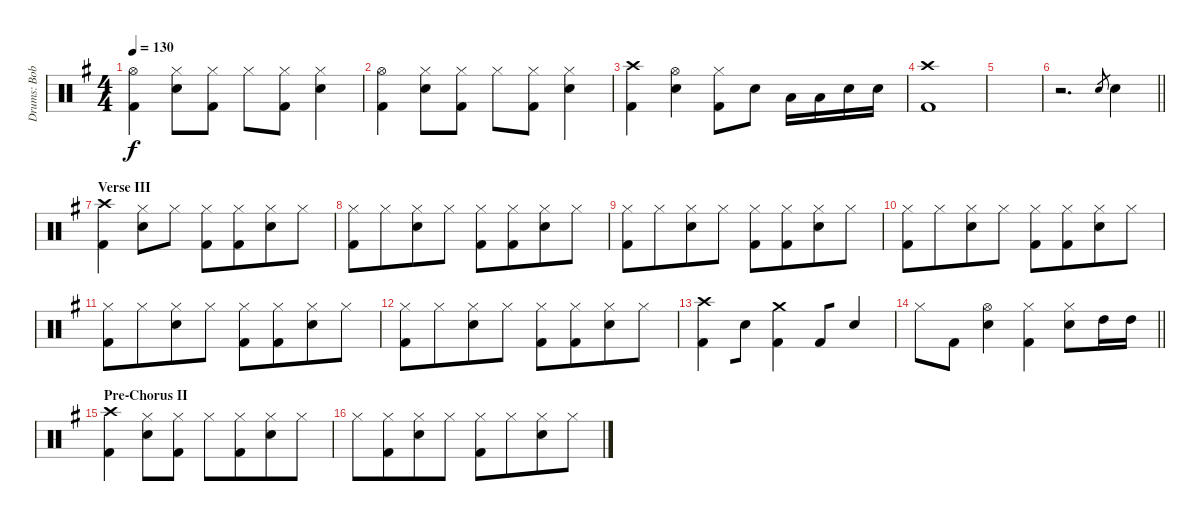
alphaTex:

\track ("Drums: Bobby" "Drums: Bob") {instrument percussion}
\staff {score}
\articulation defaults
\ts (4 4)
\tempo 130
\clef neutral
\ks g
("Hi-Hat (open)" "Kick (hit) 2").4{dy f beam merge} ("Hi-Hat (closed)" "Snare (hit) 2").8 ("Hi-Hat (closed)" "Kick (hit) 2").8 "Hi-Hat (closed)".8 ("Hi-Hat (closed)" "Kick (hit) 2").8{beam merge} ("Hi-Hat (closed)" "Snare (hit) 2").4 |
("Hi-Hat (open)" "Kick (hit) 2").4{beam merge} ("Hi-Hat (closed)" "Snare (hit) 2").8 ("Hi-Hat (closed)" "Kick (hit) 2").8 "Hi-Hat (closed)".8 ("Hi-Hat (closed)" "Kick (hit) 2").8{beam merge} ("Hi-Hat (closed)" "Snare (hit) 2").4 |
("Crash high (hit)" "Kick (hit) 2").4 ("Hi-Hat (open)" "Snare (hit) 2").4 ("Hi-Hat (closed)" "Kick (hit) 2").8 "Snare (hit) 2".8 "Low Tom (hit)".16 "Low Tom (hit)".16 "Snare (hit) 2".16 "Snare (hit) 2".16 |
("Crash high (hit)" "Kick (hit) 2").1 |
|
\barLineRight lightlight
r.2{d} "Electric Snare (hit)".8{gr} "Snare (hit) 2".4 |
\section ("" "Verse III")
("Crash high (hit)" "Kick (hit) 2").4 ("Hi-Hat (closed)" "Snare (hit) 2").8 "Hi-Hat (closed)".8 ("Hi-Hat (closed)" "Kick (hit) 2").8 ("Hi-Hat (closed)" "Kick (hit) 2").8{beam merge} ("Hi-Hat (closed)" "Snare (hit) 2").8 "Hi-Hat (closed)".8 |
("Hi-Hat (closed)" "Kick (hit) 2").8 "Hi-Hat (closed)".8{beam merge} ("Hi-Hat (closed)" "Snare (hit) 2").8 "Hi-Hat (closed)".8 ("Hi-Hat (closed)" "Kick (hit) 2").8 ("Hi-Hat (closed)" "Kick (hit) 2").8{beam merge} ("Hi-Hat (closed)" "Snare (hit) 2").8 "Hi-Hat (closed)".8 |
("Hi-Hat (closed)" "Kick (hit) 2").8 "Hi-Hat (closed)".8{beam merge} ("Hi-Hat (closed)" "Snare (hit) 2").8 "Hi-Hat (closed)".8 ("Hi-Hat (closed)" "Kick (hit) 2").8 ("Hi-Hat (closed)" "Kick (hit) 2").8{beam merge} ("Hi-Hat (closed)" "Snare (hit) 2").8 "Hi-Hat (closed)".8 |
("Hi-Hat (closed)" "Kick (hit) 2").8 "Hi-Hat (closed)".8{beam merge} ("Hi-Hat (closed)" "Snare (hit) 2").8 "Hi-Hat (closed)".8 ("Hi-Hat (closed)" "Kick (hit) 2").8 ("Hi-Hat (closed)" "Kick (hit) 2").8{beam merge} ("Hi-Hat (closed)" "Snare (hit) 2").8 "Hi-Hat (closed)".8 |
("Hi-Hat (closed)" "Kick (hit) 2").8 "Hi-Hat (closed)".8{beam merge} ("Hi-Hat (closed)" "Snare (hit) 2").8 "Hi-Hat (closed)".8 ("Hi-Hat (closed)" "Kick (hit) 2").8 ("Hi-Hat (closed)" "Kick (hit) 2").8{beam merge} ("Hi-Hat (closed)" "Snare (hit) 2").8 "Hi-Hat (closed)".8 |
("Hi-Hat (closed)" "Kick (hit) 2").8 "Hi-Hat (closed)".8{beam merge} ("Hi-Hat (closed)" "Snare (hit) 2").8 "Hi-Hat (closed)".8 ("Hi-Hat (closed)" "Kick (hit) 2").8 ("Hi-Hat (closed)" "Kick (hit) 2").8{beam merge} ("Hi-Hat (closed)" "Snare (hit) 2").8 "Hi-Hat (closed)".8 |
("Crash high (hit)" "Kick (hit) 2").4{beam merge} "Snare (hit) 2".8 ("Crash medium (hit)" "Kick (hit) 2").4 "Kick (hit) 2".8{beam merge} "Snare (hit) 2".4 |
\barLineRight lightlight "Hi-Hat (closed)".8 "Kick (hit) 2".8
("Hi-Hat (open)" "Snare (hit) 2").4 ("Hi-Hat (closed)" "Kick (hit) 2").4 ("Hi-Hat (closed)" "Snare (hit) 2").8 "High Tom (hit)".16 "High Tom (hit)".16 |
\section ("" "Pre-Chorus II")
("Crash high (hit)" "Kick (hit) 2").4{beam merge} ("Hi-Hat (closed)" "Snare (hit) 2").8 ("Hi-Hat (closed)" "Kick (hit) 2").8 "Hi-Hat (closed)".8 ("Hi-Hat (closed)" "Kick (hit) 2").8{beam merge} ("Hi-Hat (closed)" "Snare (hit) 2").8 "Hi-Hat (closed)".8 |
"Hi-Hat (closed)".8 ("Hi-Hat (closed)" "Kick (hit) 2").8{beam merge} ("Hi-Hat (closed)" "Snare (hit) 2").8 "Hi-Hat (closed)".8 ("Hi-Hat (closed)" "Kick (hit) 2").8 "Hi-Hat (closed)".8{beam merge} ("Hi-Hat (closed)" "Snare (hit) 2").8 "Hi-Hat (closed)".8
